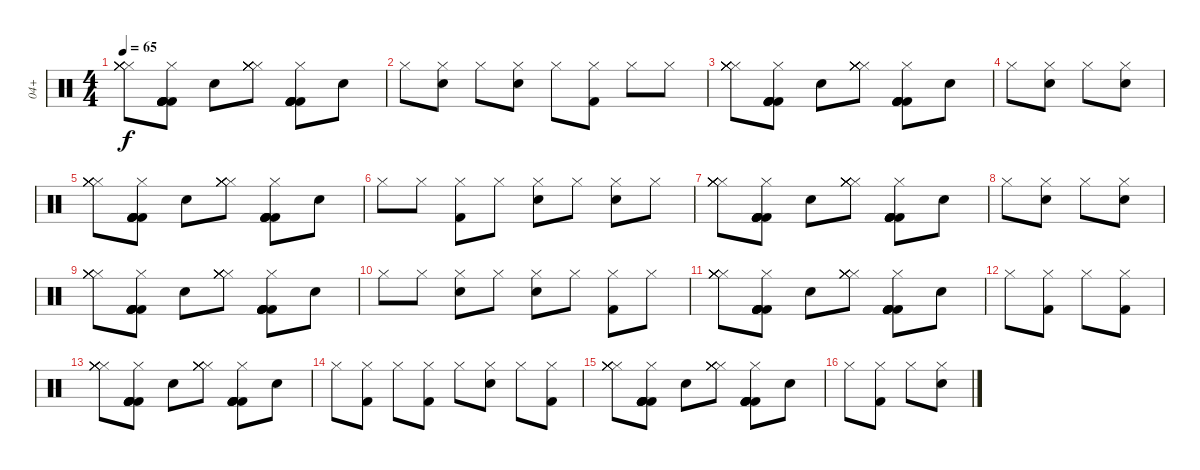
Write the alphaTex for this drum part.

\track ("04+" "04+") {instrument percussion}
\staff {score}
\articulation defaults
\ts (4 4)
\tempo 65
\clef neutral
\ks c
("Hi-Hat (closed)" "Hi-Hat (closed)" "Hi-Hat (closed)" "Hi-Hat (closed)" "Hi-Hat (closed)" "Hi-Hat (closed)").8{dy f} ("Hi-Hat (closed)" "Kick (hit) 2" "Kick (hit) 2" "Kick (hit) 2" "Kick (hit) 2" "Kick (hit) 2").8 "Hand Clap (hit)".8 ("Hi-Hat (closed)" "Hi-Hat (closed)" "Hi-Hat (closed)" "Hi-Hat (closed)" "Hi-Hat (closed)" "Hi-Hat (closed)").8 ("Hi-Hat (closed)" "Kick (hit) 2" "Kick (hit) 2" "Kick (hit) 2" "Kick (hit) 2" "Kick (hit) 2").8 "Hand Clap (hit)".8 |
"Hi-Hat (closed)".8 ("Hi-Hat (closed)" "Hand Clap (hit)").8 "Hi-Hat (closed)".8 ("Hi-Hat (closed)" "Electric Snare (hit)").8 "Hi-Hat (closed)".8 ("Hi-Hat (closed)" "Kick (hit) 2").8 "Hi-Hat (closed)".8 "Hi-Hat (closed)".8 |
("Hi-Hat (closed)" "Hi-Hat (closed)" "Hi-Hat (closed)" "Hi-Hat (closed)" "Hi-Hat (closed)" "Hi-Hat (closed)").8 ("Hi-Hat (closed)" "Kick (hit) 2" "Kick (hit) 2" "Kick (hit) 2" "Kick (hit) 2" "Kick (hit) 2").8 "Hand Clap (hit)".8 ("Hi-Hat (closed)" "Hi-Hat (closed)" "Hi-Hat (closed)" "Hi-Hat (closed)" "Hi-Hat (closed)" "Hi-Hat (closed)").8 ("Hi-Hat (closed)" "Kick (hit) 2" "Kick (hit) 2" "Kick (hit) 2" "Kick (hit) 2" "Kick (hit) 2").8 "Hand Clap (hit)".8 |
"Hi-Hat (closed)".8 ("Hi-Hat (closed)" "Electric Snare (hit)").8 "Hi-Hat (closed)".8 ("Hi-Hat (closed)" "Hand Clap (hit)").8 |
("Hi-Hat (closed)" "Hi-Hat (closed)" "Hi-Hat (closed)" "Hi-Hat (closed)" "Hi-Hat (closed)" "Hi-Hat (closed)").8 ("Hi-Hat (closed)" "Kick (hit) 2" "Kick (hit) 2" "Kick (hit) 2" "Kick (hit) 2" "Kick (hit) 2").8 "Hand Clap (hit)".8 ("Hi-Hat (closed)" "Hi-Hat (closed)" "Hi-Hat (closed)" "Hi-Hat (closed)" "Hi-Hat (closed)" "Hi-Hat (closed)").8 ("Hi-Hat (closed)" "Kick (hit) 2" "Kick (hit) 2" "Kick (hit) 2" "Kick (hit) 2" "Kick (hit) 2").8 "Hand Clap (hit)".8 |
"Hi-Hat (closed)".8 "Hi-Hat (closed)".8 ("Hi-Hat (closed)" "Kick (hit) 2").8 "Hi-Hat (closed)".8 ("Hi-Hat (closed)" "Electric Snare (hit)").8 "Hi-Hat (closed)".8 ("Hi-Hat (closed)" "Hand Clap (hit)").8 "Hi-Hat (closed)".8 |
("Hi-Hat (closed)" "Hi-Hat (closed)" "Hi-Hat (closed)" "Hi-Hat (closed)" "Hi-Hat (closed)" "Hi-Hat (closed)").8 ("Hi-Hat (closed)" "Kick (hit) 2" "Kick (hit) 2" "Kick (hit) 2" "Kick (hit) 2" "Kick (hit) 2").8 "Hand Clap (hit)".8 ("Hi-Hat (closed)" "Hi-Hat (closed)" "Hi-Hat (closed)" "Hi-Hat (closed)" "Hi-Hat (closed)" "Hi-Hat (closed)").8 ("Hi-Hat (closed)" "Kick (hit) 2" "Kick (hit) 2" "Kick (hit) 2" "Kick (hit) 2" "Kick (hit) 2").8 "Hand Clap (hit)".8 |
"Hi-Hat (closed)".8 ("Hi-Hat (closed)" "Electric Snare (hit)").8 "Hi-Hat (closed)".8 ("Hi-Hat (closed)" "Hand Clap (hit)").8 |
("Hi-Hat (closed)" "Hi-Hat (closed)" "Hi-Hat (closed)" "Hi-Hat (closed)" "Hi-Hat (closed)" "Hi-Hat (closed)").8 ("Hi-Hat (closed)" "Kick (hit) 2" "Kick (hit) 2" "Kick (hit) 2" "Kick (hit) 2" "Kick (hit) 2").8 "Hand Clap (hit)".8 ("Hi-Hat (closed)" "Hi-Hat (closed)" "Hi-Hat (closed)" "Hi-Hat (closed)" "Hi-Hat (closed)" "Hi-Hat (closed)").8 ("Hi-Hat (closed)" "Kick (hit) 2" "Kick (hit) 2" "Kick (hit) 2" "Kick (hit) 2" "Kick (hit) 2").8 "Hand Clap (hit)".8 |
"Hi-Hat (closed)".8 "Hi-Hat (closed)".8 ("Hi-Hat (closed)" "Electric Snare (hit)").8 "Hi-Hat (closed)".8 ("Hi-Hat (closed)" "Hand Clap (hit)").8 "Hi-Hat (closed)".8 ("Hi-Hat (closed)" "Kick (hit) 2").8 "Hi-Hat (closed)".8 |
("Hi-Hat (closed)" "Hi-Hat (closed)" "Hi-Hat (closed)" "Hi-Hat (closed)" "Hi-Hat (closed)" "Hi-Hat (closed)").8 ("Hi-Hat (closed)" "Kick (hit) 2" "Kick (hit) 2" "Kick (hit) 2" "Kick (hit) 2" "Kick (hit) 2").8 "Hand Clap (hit)".8 ("Hi-Hat (closed)" "Hi-Hat (closed)" "Hi-Hat (closed)" "Hi-Hat (closed)" "Hi-Hat (closed)" "Hi-Hat (closed)").8 ("Hi-Hat (closed)" "Kick (hit) 2" "Kick (hit) 2" "Kick (hit) 2" "Kick (hit) 2" "Kick (hit) 2").8 "Hand Clap (hit)".8 |
"Hi-Hat (closed)".8 ("Hi-Hat (closed)" "Kick (hit) 2").8 "Hi-Hat (closed)".8 ("Hi-Hat (closed)" "Kick (hit) 2").8 |
("Hi-Hat (closed)" "Hi-Hat (closed)" "Hi-Hat (closed)" "Hi-Hat (closed)" "Hi-Hat (closed)" "Hi-Hat (closed)").8 ("Hi-Hat (closed)" "Kick (hit) 2" "Kick (hit) 2" "Kick (hit) 2" "Kick (hit) 2" "Kick (hit) 2").8 "Hand Clap (hit)".8 ("Hi-Hat (closed)" "Hi-Hat (closed)" "Hi-Hat (closed)" "Hi-Hat (closed)" "Hi-Hat (closed)" "Hi-Hat (closed)").8 ("Hi-Hat (closed)" "Kick (hit) 2" "Kick (hit) 2" "Kick (hit) 2" "Kick (hit) 2" "Kick (hit) 2").8 "Hand Clap (hit)".8 |
"Hi-Hat (closed)".8 ("Hi-Hat (closed)" "Kick (hit) 2").8 "Hi-Hat (closed)".8 ("Hi-Hat (closed)" "Kick (hit) 2").8 "Hi-Hat (closed)".8 ("Hi-Hat (closed)" "Electric Snare (hit)").8 "Hi-Hat (closed)".8 ("Hi-Hat (closed)" "Kick (hit) 2").8 |
("Hi-Hat (closed)" "Hi-Hat (closed)" "Hi-Hat (closed)" "Hi-Hat (closed)" "Hi-Hat (closed)" "Hi-Hat (closed)").8 ("Hi-Hat (closed)" "Kick (hit) 2" "Kick (hit) 2" "Kick (hit) 2" "Kick (hit) 2" "Kick (hit) 2").8 "Hand Clap (hit)".8 ("Hi-Hat (closed)" "Hi-Hat (closed)" "Hi-Hat (closed)" "Hi-Hat (closed)" "Hi-Hat (closed)" "Hi-Hat (closed)").8 ("Hi-Hat (closed)" "Kick (hit) 2" "Kick (hit) 2" "Kick (hit) 2" "Kick (hit) 2" "Kick (hit) 2").8 "Hand Clap (hit)".8 |
"Hi-Hat (closed)".8 ("Hi-Hat (closed)" "Kick (hit) 2").8 "Hi-Hat (closed)".8 ("Hi-Hat (closed)" "Electric Snare (hit)").8
